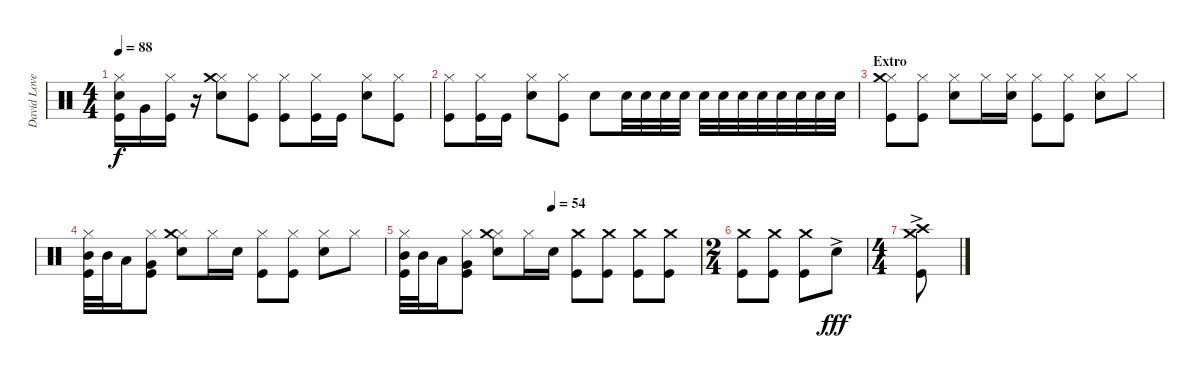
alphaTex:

\track ("David Lovering" "David Love") {instrument percussion}
\staff {score}
\articulation defaults
\ts (4 4)
\tempo 88
\clef neutral
\ks c
("Hi-Hat (closed)" "Snare (hit) 2" "Kick (hit)").16{dy f} "Very Low Tom (hit)".16 ("Hi-Hat (closed)" "Kick (hit)").16 r.16 ("Hi-Hat (closed)" "Crash medium (hit)" "Snare (hit) 2").8 ("Hi-Hat (closed)" "Kick (hit)").8 ("Hi-Hat (closed)" "Kick (hit)").8 ("Hi-Hat (closed)" "Kick (hit)").16 "Kick (hit)".16 ("Hi-Hat (closed)" "Snare (hit) 2").8 ("Hi-Hat (closed)" "Kick (hit)").8 |
("Hi-Hat (closed)" "Kick (hit)").8 ("Hi-Hat (closed)" "Kick (hit)").16 "Kick (hit)".16 ("Hi-Hat (closed)" "Snare (hit) 2").8 ("Hi-Hat (closed)" "Kick (hit)").8 "Snare (hit) 2".8 "Snare (hit) 2".32 "Snare (hit) 2".32 "Snare (hit) 2".32 "Snare (hit) 2".32 "Snare (hit) 2".32 "Snare (hit) 2".32 "Snare (hit) 2".32 "Snare (hit) 2".32 "Snare (hit) 2".32 "Snare (hit) 2".32 "Snare (hit) 2".32 "Snare (hit) 2".32 |
\section ("" "Extro")
("Hi-Hat (closed)" "Crash medium (hit)" "Kick (hit)").8 ("Hi-Hat (closed)" "Kick (hit)").8 ("Hi-Hat (closed)" "Snare (hit) 2").8 "Hi-Hat (closed)".16 ("Hi-Hat (closed)" "Snare (hit) 2").16 ("Hi-Hat (closed)" "Kick (hit)").8 ("Hi-Hat (closed)" "Kick (hit)").8 ("Hi-Hat (closed)" "Snare (hit) 2").8 "Hi-Hat (closed)".8 |
("Hi-Hat (closed)" "Mid Tom (hit)" "Kick (hit)").32 "Mid Tom (hit)".32 "Low Tom (hit)".16 ("Hi-Hat (closed)" "Very Low Tom (hit)" "Kick (hit)").8 ("Hi-Hat (closed)" "Crash medium (hit)" "Snare (hit) 2").8 "Hi-Hat (closed)".16 "Snare (hit) 2".16 ("Hi-Hat (closed)" "Kick (hit)").8 ("Hi-Hat (closed)" "Kick (hit)").8 ("Hi-Hat (closed)" "Snare (hit) 2").8 "Hi-Hat (closed)".8 |
\tempo (54 0.5)
("Hi-Hat (closed)" "Mid Tom (hit)" "Kick (hit)").32 "Mid Tom (hit)".32 "Low Tom (hit)".16 ("Hi-Hat (closed)" "Very Low Tom (hit)" "Kick (hit)").8 ("Hi-Hat (closed)" "Crash medium (hit)" "Snare (hit) 2").8 "Hi-Hat (closed)".16 "Snare (hit) 2".16 ("Crash medium (hit)" "Kick (hit)").8 ("Crash medium (hit)" "Kick (hit)").8 ("Crash medium (hit)" "Kick (hit)").8 ("Crash medium (hit)" "Kick (hit)").8 |
\ts (2 4)
("Crash medium (hit)" "Kick (hit)").8 ("Crash medium (hit)" "Kick (hit)").8 ("Crash medium (hit)" "Kick (hit)").8 "Snare (hit) 2"{ac}.8{dy fff} |
\ts (4 4)
("Crash high (hit)"{ac} "Crash medium (hit)" "Kick (hit)").8
